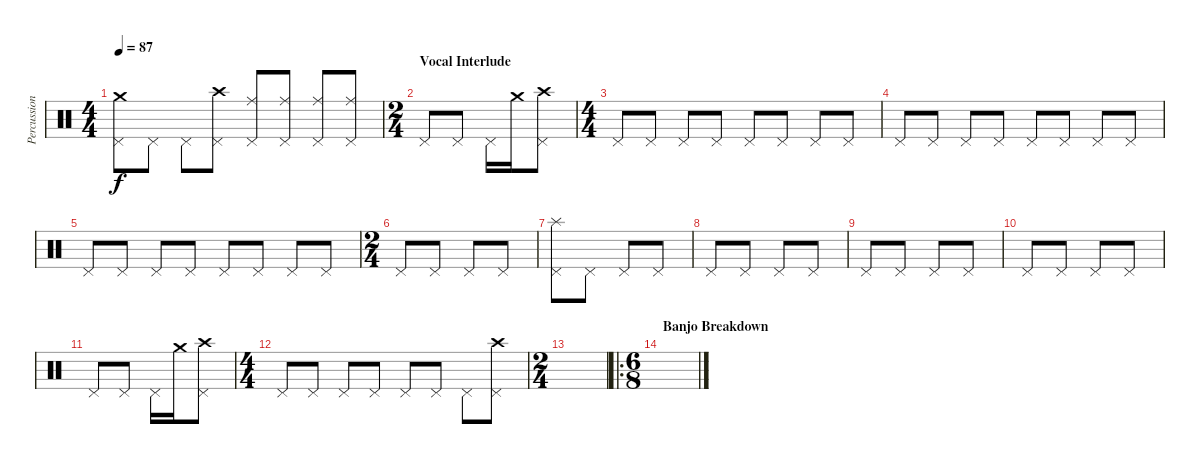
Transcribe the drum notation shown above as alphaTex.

\track ("Percussion" "Percussion") {instrument percussion}
\staff {score}
\articulation defaults
\ts (4 4)
\tempo 87
\clef neutral
\ks c
("Crash medium (hit)" "Pedal Hi-Hat (hit)").8{dy f} "Pedal Hi-Hat (hit)".8 "Pedal Hi-Hat (hit)".8 ("Crash high (hit)" "Pedal Hi-Hat (hit)").8 ("Ride (middle)" "Pedal Hi-Hat (hit)").8 ("Ride (middle)" "Pedal Hi-Hat (hit)").8 ("Ride (middle)" "Pedal Hi-Hat (hit)").8 ("Ride (middle)" "Pedal Hi-Hat (hit)").8 |
\ts (2 4)
\section ("" "Vocal Interlude")
"Pedal Hi-Hat (hit)".8 "Pedal Hi-Hat (hit)".8 "Pedal Hi-Hat (hit)".16 "Crash medium (hit)".16 ("Crash high (hit)" "Pedal Hi-Hat (hit)").8 |
\ts (4 4)
"Pedal Hi-Hat (hit)".8 "Pedal Hi-Hat (hit)".8 "Pedal Hi-Hat (hit)".8 "Pedal Hi-Hat (hit)".8 "Pedal Hi-Hat (hit)".8 "Pedal Hi-Hat (hit)".8 "Pedal Hi-Hat (hit)".8 "Pedal Hi-Hat (hit)".8 |
"Pedal Hi-Hat (hit)".8 "Pedal Hi-Hat (hit)".8 "Pedal Hi-Hat (hit)".8 "Pedal Hi-Hat (hit)".8 "Pedal Hi-Hat (hit)".8 "Pedal Hi-Hat (hit)".8 "Pedal Hi-Hat (hit)".8 "Pedal Hi-Hat (hit)".8 |
"Pedal Hi-Hat (hit)".8 "Pedal Hi-Hat (hit)".8 "Pedal Hi-Hat (hit)".8 "Pedal Hi-Hat (hit)".8 "Pedal Hi-Hat (hit)".8 "Pedal Hi-Hat (hit)".8 "Pedal Hi-Hat (hit)".8 "Pedal Hi-Hat (hit)".8 |
\ts (2 4)
"Pedal Hi-Hat (hit)".8 "Pedal Hi-Hat (hit)".8 "Pedal Hi-Hat (hit)".8 "Pedal Hi-Hat (hit)".8 |
("Splash (hit)" "Pedal Hi-Hat (hit)").8 "Pedal Hi-Hat (hit)".8 "Pedal Hi-Hat (hit)".8 "Pedal Hi-Hat (hit)".8 |
"Pedal Hi-Hat (hit)".8 "Pedal Hi-Hat (hit)".8 "Pedal Hi-Hat (hit)".8 "Pedal Hi-Hat (hit)".8 |
"Pedal Hi-Hat (hit)".8 "Pedal Hi-Hat (hit)".8 "Pedal Hi-Hat (hit)".8 "Pedal Hi-Hat (hit)".8 |
"Pedal Hi-Hat (hit)".8 "Pedal Hi-Hat (hit)".8 "Pedal Hi-Hat (hit)".8 "Pedal Hi-Hat (hit)".8 |
"Pedal Hi-Hat (hit)".8 "Pedal Hi-Hat (hit)".8 "Pedal Hi-Hat (hit)".16 "Crash medium (hit)".16 ("Crash high (hit)" "Pedal Hi-Hat (hit)").8 |
\ts (4 4)
"Pedal Hi-Hat (hit)".8 "Pedal Hi-Hat (hit)".8 "Pedal Hi-Hat (hit)".8 "Pedal Hi-Hat (hit)".8 "Pedal Hi-Hat (hit)".8 "Pedal Hi-Hat (hit)".8 "Pedal Hi-Hat (hit)".8 ("Crash high (hit)" "Pedal Hi-Hat (hit)").8 |
\ts (2 4)
|
\ro
\ts (6 8)
\section ("" "Banjo Breakdown")
